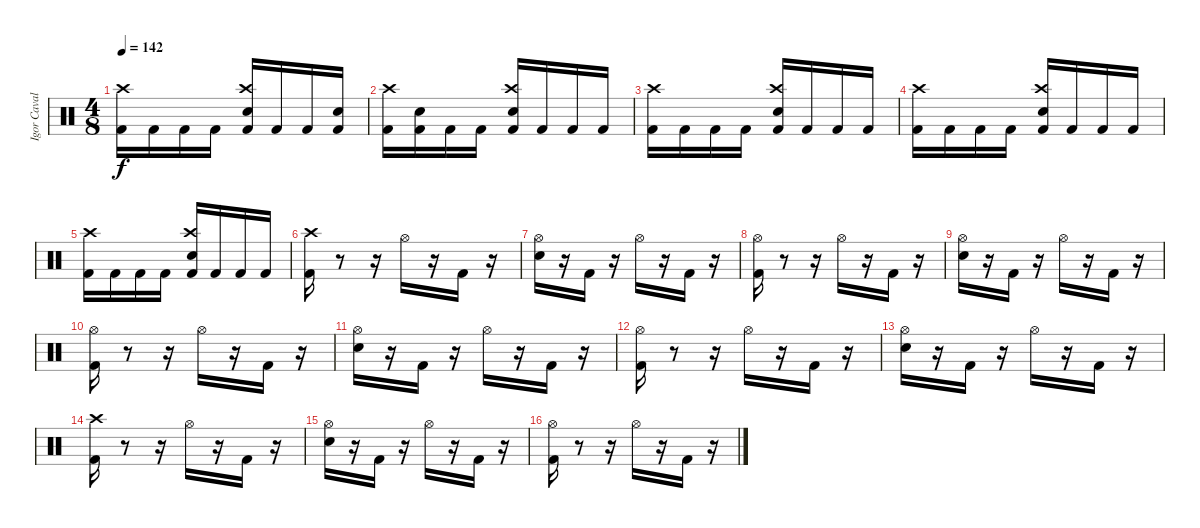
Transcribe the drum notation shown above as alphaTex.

\track ("Igor Cavalera" "Igor Caval") {instrument percussion}
\staff {score}
\articulation defaults
\ts (4 8)
\tempo 142
\clef neutral
\ks c
("Kick (hit) 2" "Crash high (hit)").16{dy f} "Kick (hit) 2".16 "Kick (hit) 2".16 "Kick (hit) 2".16 ("Kick (hit) 2" "Electric Snare (hit)" "Crash high (hit)").16 "Kick (hit) 2".16 "Kick (hit) 2".16 ("Kick (hit) 2" "Electric Snare (hit)").16 |
("Kick (hit) 2" "Crash high (hit)").16 ("Kick (hit) 2" "Electric Snare (hit)").16 "Kick (hit) 2".16 "Kick (hit) 2".16 ("Kick (hit) 2" "Electric Snare (hit)" "Crash high (hit)").16 "Kick (hit) 2".16 "Kick (hit) 2".16 "Kick (hit) 2".16 |
("Kick (hit) 2" "Crash high (hit)").16 "Kick (hit) 2".16 "Kick (hit) 2".16 "Kick (hit) 2".16 ("Kick (hit) 2" "Electric Snare (hit)" "Crash high (hit)").16 "Kick (hit) 2".16 "Kick (hit) 2".16 "Kick (hit) 2".16 |
("Kick (hit) 2" "Crash high (hit)").16 "Kick (hit) 2".16 "Kick (hit) 2".16 "Kick (hit) 2".16 ("Kick (hit) 2" "Electric Snare (hit)" "Crash high (hit)").16 "Kick (hit) 2".16 "Kick (hit) 2".16 "Kick (hit) 2".16 |
("Kick (hit) 2" "Crash high (hit)").16 "Kick (hit) 2".16 "Kick (hit) 2".16 "Kick (hit) 2".16 ("Kick (hit) 2" "Electric Snare (hit)" "Crash high (hit)").16 "Kick (hit) 2".16 "Kick (hit) 2".16 "Kick (hit) 2".16 |
("Kick (hit) 2" "Crash high (hit)").16 r.8 r.16 "Hi-Hat (open)".16 r.16 "Kick (hit) 2".16 r.16 |
("Electric Snare (hit)" "Hi-Hat (open)").16 r.16 "Kick (hit) 2".16 r.16 "Hi-Hat (open)".16 r.16 "Kick (hit) 2".16 r.16 |
("Kick (hit) 2" "Hi-Hat (open)").16 r.8 r.16 "Hi-Hat (open)".16 r.16 "Kick (hit) 2".16 r.16 |
("Electric Snare (hit)" "Hi-Hat (open)").16 r.16 "Kick (hit) 2".16 r.16 "Hi-Hat (open)".16 r.16 "Kick (hit) 2".16 r.16 |
("Kick (hit) 2" "Hi-Hat (open)").16 r.8 r.16 "Hi-Hat (open)".16 r.16 "Kick (hit) 2".16 r.16 |
("Electric Snare (hit)" "Hi-Hat (open)").16 r.16 "Kick (hit) 2".16 r.16 "Hi-Hat (open)".16 r.16 "Kick (hit) 2".16 r.16 |
("Kick (hit) 2" "Hi-Hat (open)").16 r.8 r.16 "Hi-Hat (open)".16 r.16 "Kick (hit) 2".16 r.16 |
("Electric Snare (hit)" "Hi-Hat (open)").16 r.16 "Kick (hit) 2".16 r.16 "Hi-Hat (open)".16 r.16 "Kick (hit) 2".16 r.16 |
("Kick (hit) 2" "Crash high (hit)").16 r.8 r.16 "Hi-Hat (open)".16 r.16 "Kick (hit) 2".16 r.16 |
("Electric Snare (hit)" "Hi-Hat (open)").16 r.16 "Kick (hit) 2".16 r.16 "Hi-Hat (open)".16 r.16 "Kick (hit) 2".16 r.16 |
("Kick (hit) 2" "Hi-Hat (open)").16 r.8 r.16 "Hi-Hat (open)".16 r.16 "Kick (hit) 2".16 r.16
